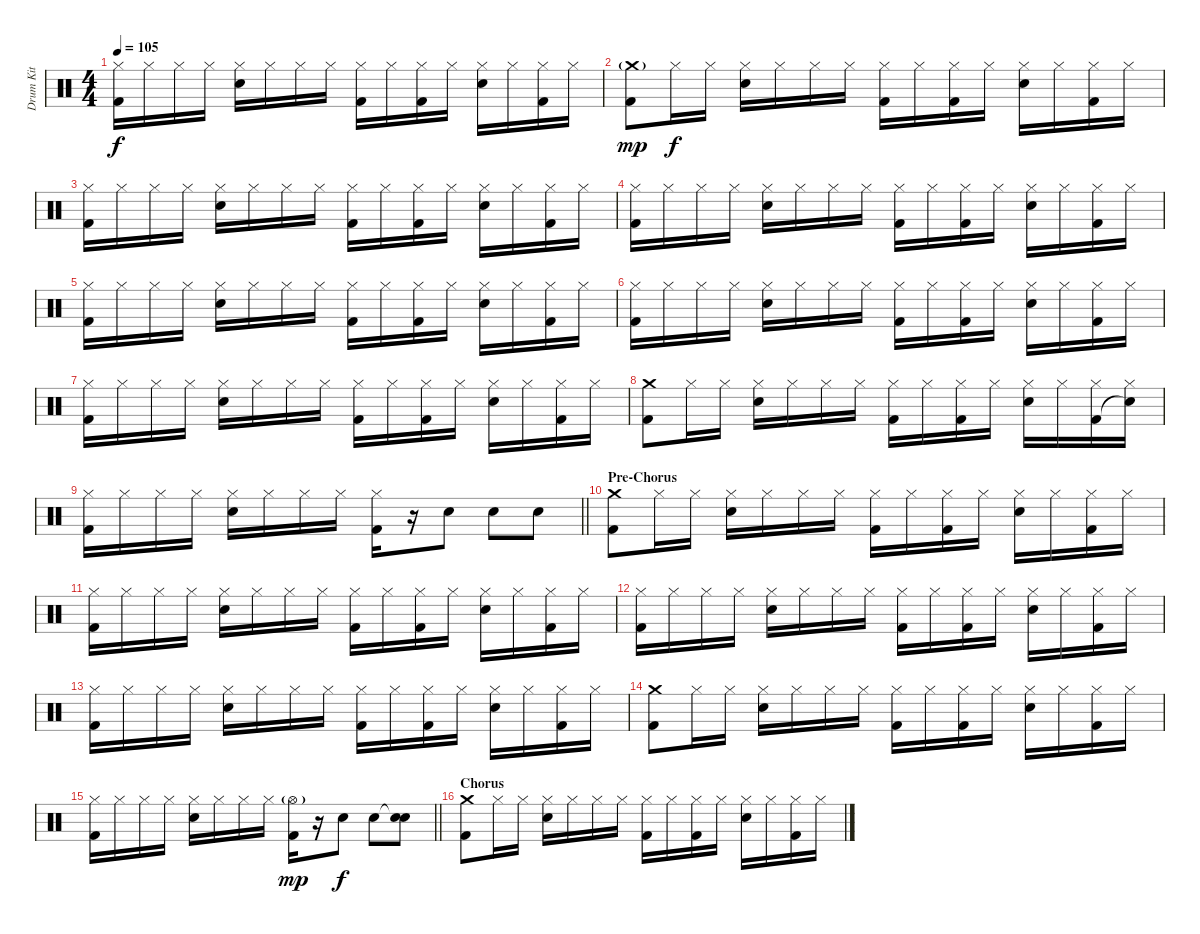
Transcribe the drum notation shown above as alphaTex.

\track ("Drum Kit" "Drum Kit") {instrument percussion}
\staff {score}
\articulation defaults
\ts (4 4)
\tempo 105
\clef neutral
\ks c
("Hi-Hat (closed)" "Kick (hit) 2").16{dy f} "Hi-Hat (closed)".16 "Hi-Hat (closed)".16 "Hi-Hat (closed)".16 ("Hi-Hat (closed)" "Electric Snare (hit)").16 "Hi-Hat (closed)".16 "Hi-Hat (closed)".16 "Hi-Hat (closed)".16 ("Hi-Hat (closed)" "Kick (hit) 2").16 "Hi-Hat (closed)".16 ("Hi-Hat (closed)" "Kick (hit) 2").16 "Hi-Hat (closed)".16 ("Hi-Hat (closed)" "Electric Snare (hit)").16 "Hi-Hat (closed)".16 ("Hi-Hat (closed)" "Kick (hit) 2").16 "Hi-Hat (closed)".16 |
("Crash medium (hit)"{g} "Kick (hit) 2").8{dy mp} "Hi-Hat (closed)".16{dy f} "Hi-Hat (closed)".16 ("Hi-Hat (closed)" "Electric Snare (hit)").16 "Hi-Hat (closed)".16 "Hi-Hat (closed)".16 "Hi-Hat (closed)".16 ("Hi-Hat (closed)" "Kick (hit) 2").16 "Hi-Hat (closed)".16 ("Hi-Hat (closed)" "Kick (hit) 2").16 "Hi-Hat (closed)".16 ("Hi-Hat (closed)" "Electric Snare (hit)").16 "Hi-Hat (closed)".16 ("Hi-Hat (closed)" "Kick (hit) 2").16 "Hi-Hat (closed)".16 |
("Hi-Hat (closed)" "Kick (hit) 2").16 "Hi-Hat (closed)".16 "Hi-Hat (closed)".16 "Hi-Hat (closed)".16 ("Hi-Hat (closed)" "Electric Snare (hit)").16 "Hi-Hat (closed)".16 "Hi-Hat (closed)".16 "Hi-Hat (closed)".16 ("Hi-Hat (closed)" "Kick (hit) 2").16 "Hi-Hat (closed)".16 ("Hi-Hat (closed)" "Kick (hit) 2").16 "Hi-Hat (closed)".16 ("Hi-Hat (closed)" "Electric Snare (hit)").16 "Hi-Hat (closed)".16 ("Hi-Hat (closed)" "Kick (hit) 2").16 "Hi-Hat (closed)".16 |
("Hi-Hat (closed)" "Kick (hit) 2").16 "Hi-Hat (closed)".16 "Hi-Hat (closed)".16 "Hi-Hat (closed)".16 ("Hi-Hat (closed)" "Electric Snare (hit)").16 "Hi-Hat (closed)".16 "Hi-Hat (closed)".16 "Hi-Hat (closed)".16 ("Hi-Hat (closed)" "Kick (hit) 2").16 "Hi-Hat (closed)".16 ("Hi-Hat (closed)" "Kick (hit) 2").16 "Hi-Hat (closed)".16 ("Hi-Hat (closed)" "Electric Snare (hit)").16 "Hi-Hat (closed)".16 ("Hi-Hat (closed)" "Kick (hit) 2").16 "Hi-Hat (closed)".16 |
("Hi-Hat (closed)" "Kick (hit) 2").16 "Hi-Hat (closed)".16 "Hi-Hat (closed)".16 "Hi-Hat (closed)".16 ("Hi-Hat (closed)" "Electric Snare (hit)").16 "Hi-Hat (closed)".16 "Hi-Hat (closed)".16 "Hi-Hat (closed)".16 ("Hi-Hat (closed)" "Kick (hit) 2").16 "Hi-Hat (closed)".16 ("Hi-Hat (closed)" "Kick (hit) 2").16 "Hi-Hat (closed)".16 ("Hi-Hat (closed)" "Electric Snare (hit)").16 "Hi-Hat (closed)".16 ("Hi-Hat (closed)" "Kick (hit) 2").16 "Hi-Hat (closed)".16 |
("Hi-Hat (closed)" "Kick (hit) 2").16 "Hi-Hat (closed)".16 "Hi-Hat (closed)".16 "Hi-Hat (closed)".16 ("Hi-Hat (closed)" "Electric Snare (hit)").16 "Hi-Hat (closed)".16 "Hi-Hat (closed)".16 "Hi-Hat (closed)".16 ("Hi-Hat (closed)" "Kick (hit) 2").16 "Hi-Hat (closed)".16 ("Hi-Hat (closed)" "Kick (hit) 2").16 "Hi-Hat (closed)".16 ("Hi-Hat (closed)" "Electric Snare (hit)").16 "Hi-Hat (closed)".16 ("Hi-Hat (closed)" "Kick (hit) 2").16 "Hi-Hat (closed)".16 |
("Hi-Hat (closed)" "Kick (hit) 2").16 "Hi-Hat (closed)".16 "Hi-Hat (closed)".16 "Hi-Hat (closed)".16 ("Hi-Hat (closed)" "Electric Snare (hit)").16 "Hi-Hat (closed)".16 "Hi-Hat (closed)".16 "Hi-Hat (closed)".16 ("Hi-Hat (closed)" "Kick (hit) 2").16 "Hi-Hat (closed)".16 ("Hi-Hat (closed)" "Kick (hit) 2").16 "Hi-Hat (closed)".16 ("Hi-Hat (closed)" "Electric Snare (hit)").16 "Hi-Hat (closed)".16 ("Hi-Hat (closed)" "Kick (hit) 2").16 "Hi-Hat (closed)".16 |
("Crash medium (hit)" "Kick (hit) 2").8 "Hi-Hat (closed)".16 "Hi-Hat (closed)".16 ("Hi-Hat (closed)" "Electric Snare (hit)").16 "Hi-Hat (closed)".16 "Hi-Hat (closed)".16 "Hi-Hat (closed)".16 ("Hi-Hat (closed)" "Kick (hit) 2").16 "Hi-Hat (closed)".16 ("Hi-Hat (closed)" "Kick (hit) 2").16 "Hi-Hat (closed)".16 ("Hi-Hat (closed)" "Electric Snare (hit)").16 "Hi-Hat (closed)".16 ("Hi-Hat (closed)" "Kick (hit) 2").16 ("Hi-Hat (closed)" "Snare (hit)"{t}).16 |
\barLineRight lightlight
("Hi-Hat (closed)" "Kick (hit) 2").16 "Hi-Hat (closed)".16 "Hi-Hat (closed)".16 "Hi-Hat (closed)".16 ("Hi-Hat (closed)" "Electric Snare (hit)").16 "Hi-Hat (closed)".16 "Hi-Hat (closed)".16 "Hi-Hat (closed)".16 ("Hi-Hat (closed)" "Kick (hit) 2").16 r.16 "Electric Snare (hit)".8 "Electric Snare (hit)".8 "Electric Snare (hit)".8 |
\section ("" "Pre-Chorus")
("Crash medium (hit)" "Kick (hit) 2").8 "Hi-Hat (closed)".16 "Hi-Hat (closed)".16 ("Hi-Hat (closed)" "Electric Snare (hit)").16 "Hi-Hat (closed)".16 "Hi-Hat (closed)".16 "Hi-Hat (closed)".16 ("Hi-Hat (closed)" "Kick (hit) 2").16 "Hi-Hat (closed)".16 ("Hi-Hat (closed)" "Kick (hit) 2").16 "Hi-Hat (closed)".16 ("Hi-Hat (closed)" "Electric Snare (hit)").16 "Hi-Hat (closed)".16 ("Hi-Hat (closed)" "Kick (hit) 2").16 "Hi-Hat (closed)".16 |
("Hi-Hat (closed)" "Kick (hit) 2").16 "Hi-Hat (closed)".16 "Hi-Hat (closed)".16 "Hi-Hat (closed)".16 ("Hi-Hat (closed)" "Electric Snare (hit)").16 "Hi-Hat (closed)".16 "Hi-Hat (closed)".16 "Hi-Hat (closed)".16 ("Hi-Hat (closed)" "Kick (hit) 2").16 "Hi-Hat (closed)".16 ("Hi-Hat (closed)" "Kick (hit) 2").16 "Hi-Hat (closed)".16 ("Hi-Hat (closed)" "Electric Snare (hit)").16 "Hi-Hat (closed)".16 ("Hi-Hat (closed)" "Kick (hit) 2").16 "Hi-Hat (closed)".16 |
("Hi-Hat (closed)" "Kick (hit) 2").16 "Hi-Hat (closed)".16 "Hi-Hat (closed)".16 "Hi-Hat (closed)".16 ("Hi-Hat (closed)" "Electric Snare (hit)").16 "Hi-Hat (closed)".16 "Hi-Hat (closed)".16 "Hi-Hat (closed)".16 ("Hi-Hat (closed)" "Kick (hit) 2").16 "Hi-Hat (closed)".16 ("Hi-Hat (closed)" "Kick (hit) 2").16 "Hi-Hat (closed)".16 ("Hi-Hat (closed)" "Electric Snare (hit)").16 "Hi-Hat (closed)".16 ("Hi-Hat (closed)" "Kick (hit) 2").16 "Hi-Hat (closed)".16 |
("Hi-Hat (closed)" "Kick (hit) 2").16 "Hi-Hat (closed)".16 "Hi-Hat (closed)".16 "Hi-Hat (closed)".16 ("Hi-Hat (closed)" "Electric Snare (hit)").16 "Hi-Hat (closed)".16 "Hi-Hat (closed)".16 "Hi-Hat (closed)".16 ("Hi-Hat (closed)" "Kick (hit) 2").16 "Hi-Hat (closed)".16 ("Hi-Hat (closed)" "Kick (hit) 2").16 "Hi-Hat (closed)".16 ("Hi-Hat (closed)" "Electric Snare (hit)").16 "Hi-Hat (closed)".16 ("Hi-Hat (closed)" "Kick (hit) 2").16 "Hi-Hat (closed)".16 |
("Crash medium (hit)" "Kick (hit) 2").8 "Hi-Hat (closed)".16 "Hi-Hat (closed)".16 ("Hi-Hat (closed)" "Electric Snare (hit)").16 "Hi-Hat (closed)".16 "Hi-Hat (closed)".16 "Hi-Hat (closed)".16 ("Hi-Hat (closed)" "Kick (hit) 2").16 "Hi-Hat (closed)".16 ("Hi-Hat (closed)" "Kick (hit) 2").16 "Hi-Hat (closed)".16 ("Hi-Hat (closed)" "Electric Snare (hit)").16 "Hi-Hat (closed)".16 ("Hi-Hat (closed)" "Kick (hit) 2").16 "Hi-Hat (closed)".16 |
\barLineRight lightlight
("Hi-Hat (closed)" "Kick (hit) 2").16 "Hi-Hat (closed)".16 "Hi-Hat (closed)".16 "Hi-Hat (closed)".16 ("Hi-Hat (closed)" "Electric Snare (hit)").16 "Hi-Hat (closed)".16 "Hi-Hat (closed)".16 "Hi-Hat (closed)".16 ("Hi-Hat (open)"{g} "Kick (hit) 2").16{dy mp} r.16 "Electric Snare (hit)".8{dy f} "Electric Snare (hit)".8 ("Snare (hit)"{t} "Electric Snare (hit)").8 |
\section ("" "Chorus")
("Crash medium (hit)" "Kick (hit) 2").8 "Hi-Hat (closed)".16 "Hi-Hat (closed)".16 ("Hi-Hat (closed)" "Electric Snare (hit)").16 "Hi-Hat (closed)".16 "Hi-Hat (closed)".16 "Hi-Hat (closed)".16 ("Hi-Hat (closed)" "Kick (hit) 2").16 "Hi-Hat (closed)".16 ("Hi-Hat (closed)" "Kick (hit) 2").16 "Hi-Hat (closed)".16 ("Hi-Hat (closed)" "Electric Snare (hit)").16 "Hi-Hat (closed)".16 ("Hi-Hat (closed)" "Kick (hit) 2").16 "Hi-Hat (closed)".16
